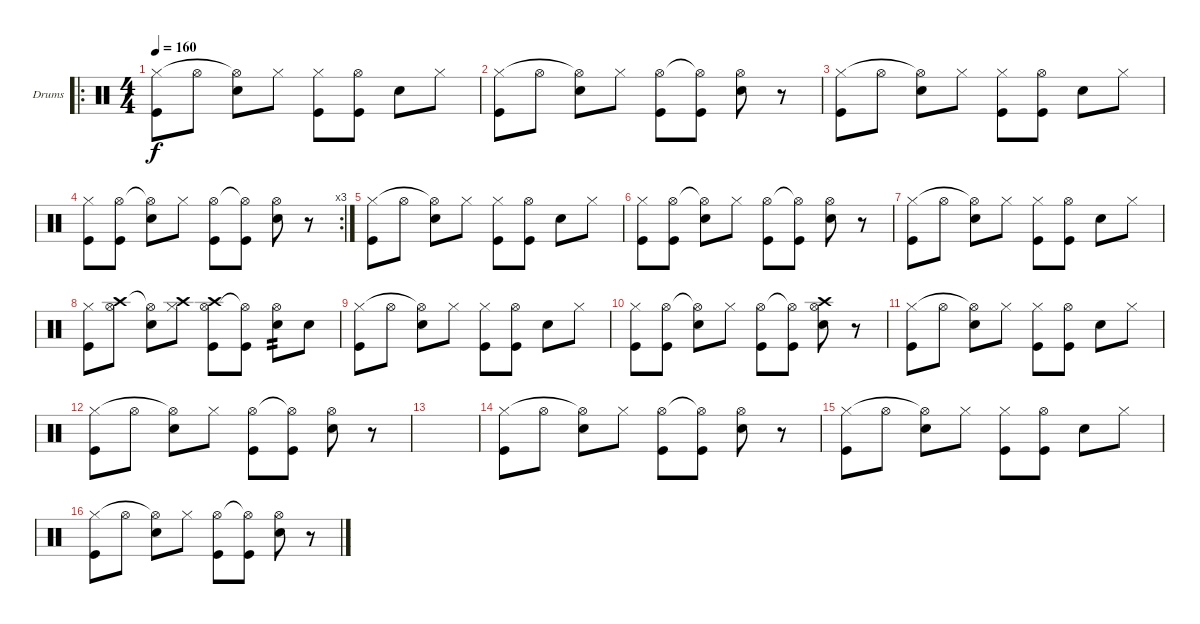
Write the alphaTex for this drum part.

\bracketExtendMode groupsimilarinstruments
\firstSystemTrackNameOrientation horizontal
\otherSystemsTrackNameOrientation horizontal
\track ("Drumkit" "Drums") {instrument percussion}
\staff {score}
\articulation defaults
\ro
\ts (4 4)
\tempo 160
\clef neutral
\ks c
("Kick (hit)" "Hi-Hat (closed)").8{dy f} "Hi-Hat (open)".8 ("Snare (hit) 2" "Hi-Hat (open)"{t}).8 "Hi-Hat (closed)".8 ("Kick (hit)" "Hi-Hat (closed)").8 ("Kick (hit)" "Hi-Hat (open)").8 "Snare (hit) 2".8 "Hi-Hat (closed)".8 |
("Kick (hit)" "Hi-Hat (closed)").8 "Hi-Hat (open)".8 ("Snare (hit) 2" "Hi-Hat (open)"{t}).8 "Hi-Hat (closed)".8 ("Kick (hit)" "Hi-Hat (open)").8 ("Kick (hit)" "Hi-Hat (open)"{t}).8 ("Snare (hit) 2" "Hi-Hat (open)").8 r.8 |
("Kick (hit)" "Hi-Hat (closed)").8 "Hi-Hat (open)".8 ("Snare (hit) 2" "Hi-Hat (open)"{t}).8 "Hi-Hat (closed)".8 ("Kick (hit)" "Hi-Hat (closed)").8 ("Kick (hit)" "Hi-Hat (open)").8 "Snare (hit) 2".8 "Hi-Hat (closed)".8 |
\rc 3
("Kick (hit)" "Hi-Hat (closed)").8 ("Kick (hit)" "Hi-Hat (open)").8 ("Snare (hit) 2" "Hi-Hat (open)"{t}).8 "Hi-Hat (closed)".8 ("Kick (hit)" "Hi-Hat (open)").8 ("Kick (hit)" "Hi-Hat (open)"{t}).8 ("Snare (hit) 2" "Hi-Hat (open)").8 r.8 |
("Kick (hit)" "Hi-Hat (closed)").8 "Hi-Hat (open)".8 ("Snare (hit) 2" "Hi-Hat (open)"{t}).8 "Hi-Hat (closed)".8 ("Kick (hit)" "Hi-Hat (closed)").8 ("Kick (hit)" "Hi-Hat (open)").8 "Snare (hit) 2".8 "Hi-Hat (closed)".8 |
("Kick (hit)" "Hi-Hat (closed)").8 ("Kick (hit)" "Hi-Hat (open)").8 ("Snare (hit) 2" "Hi-Hat (open)"{t}).8 "Hi-Hat (closed)".8 ("Kick (hit)" "Hi-Hat (open)").8 ("Kick (hit)" "Hi-Hat (open)"{t}).8 ("Snare (hit) 2" "Hi-Hat (open)").8 r.8 |
("Kick (hit)" "Hi-Hat (closed)").8 "Hi-Hat (open)".8 ("Snare (hit) 2" "Hi-Hat (open)"{t}).8 "Hi-Hat (closed)".8 ("Kick (hit)" "Hi-Hat (closed)").8 ("Kick (hit)" "Hi-Hat (open)").8 "Snare (hit) 2".8 "Hi-Hat (closed)".8 |
("Kick (hit)" "Hi-Hat (closed)").8 ("Hi-Hat (open)" "Crash high (hit)").8 ("Snare (hit) 2" "Hi-Hat (open)"{t}).8 ("Hi-Hat (closed)" "Crash high (hit)").8 ("Kick (hit)" "Hi-Hat (open)" "Crash high (hit)").8 ("Kick (hit)" "Hi-Hat (open)"{t}).8 ("Snare (hit) 2" "Hi-Hat (open)").8{tp 2} "Snare (hit) 2".8 |
("Kick (hit)" "Hi-Hat (closed)").8 "Hi-Hat (open)".8 ("Snare (hit) 2" "Hi-Hat (open)"{t}).8 "Hi-Hat (closed)".8 ("Kick (hit)" "Hi-Hat (closed)").8 ("Kick (hit)" "Hi-Hat (open)").8 "Snare (hit) 2".8 "Hi-Hat (closed)".8 |
("Kick (hit)" "Hi-Hat (closed)").8 ("Kick (hit)" "Hi-Hat (open)").8 ("Snare (hit) 2" "Hi-Hat (open)"{t}).8 "Hi-Hat (closed)".8 ("Kick (hit)" "Hi-Hat (open)").8 ("Kick (hit)" "Hi-Hat (open)"{t}).8 ("Snare (hit) 2" "Hi-Hat (open)" "Crash high (hit)").8 r.8 |
("Kick (hit)" "Hi-Hat (closed)").8 "Hi-Hat (open)".8 ("Snare (hit) 2" "Hi-Hat (open)"{t}).8 "Hi-Hat (closed)".8 ("Kick (hit)" "Hi-Hat (closed)").8 ("Kick (hit)" "Hi-Hat (open)").8 "Snare (hit) 2".8 "Hi-Hat (closed)".8 |
("Kick (hit)" "Hi-Hat (closed)").8 "Hi-Hat (open)".8 ("Snare (hit) 2" "Hi-Hat (open)"{t}).8 "Hi-Hat (closed)".8 ("Kick (hit)" "Hi-Hat (open)").8 ("Kick (hit)" "Hi-Hat (open)"{t}).8 ("Snare (hit) 2" "Hi-Hat (open)").8 r.8 |
|
("Kick (hit)" "Hi-Hat (closed)").8 "Hi-Hat (open)".8 ("Snare (hit) 2" "Hi-Hat (open)"{t}).8 "Hi-Hat (closed)".8 ("Kick (hit)" "Hi-Hat (open)").8 ("Kick (hit)" "Hi-Hat (open)"{t}).8 ("Snare (hit) 2" "Hi-Hat (open)").8 r.8 |
("Kick (hit)" "Hi-Hat (closed)").8 "Hi-Hat (open)".8 ("Snare (hit) 2" "Hi-Hat (open)"{t}).8 "Hi-Hat (closed)".8 ("Kick (hit)" "Hi-Hat (closed)").8 ("Kick (hit)" "Hi-Hat (open)").8 "Snare (hit) 2".8 "Hi-Hat (closed)".8 |
("Kick (hit)" "Hi-Hat (closed)").8 "Hi-Hat (open)".8 ("Snare (hit) 2" "Hi-Hat (open)"{t}).8 "Hi-Hat (closed)".8 ("Kick (hit)" "Hi-Hat (open)").8 ("Kick (hit)" "Hi-Hat (open)"{t}).8 ("Snare (hit) 2" "Hi-Hat (open)").8 r.8
